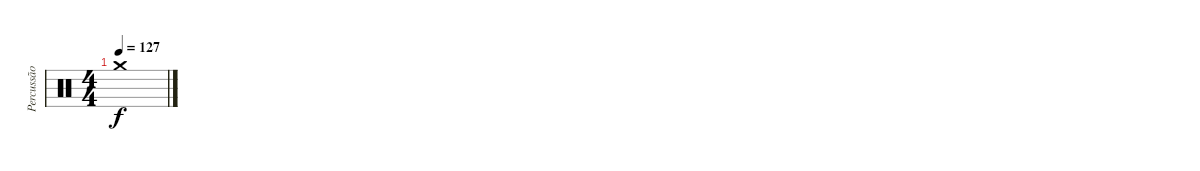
\track ("Percussão" "Percussão") {instrument percussion}
\staff {score}
\articulation defaults
\ts (4 4)
\tempo 127
\clef neutral
\ks c "Crash medium (hit)".1{dy f}
